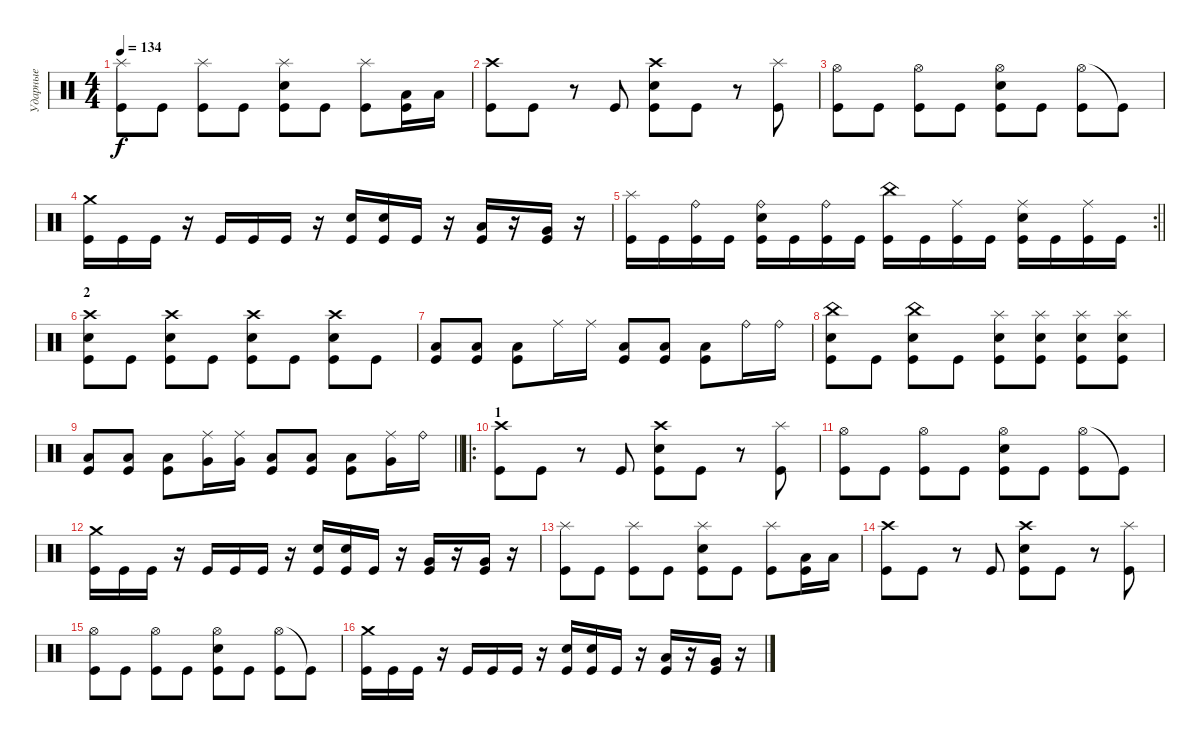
\track ("Ударные" "Ударные") {instrument percussion}
\staff {score}
\articulation defaults
\ts (4 4)
\tempo 134
\clef neutral
\ks c
("Splash (hit)" "Kick (hit)").8{dy f} "Kick (hit)".8 ("Splash (hit)" "Kick (hit)").8 "Kick (hit)".8 ("Splash (hit)" "Electric Snare (hit)" "Kick (hit)").8 "Kick (hit)".8 ("Splash (hit)" "Kick (hit)").8 ("Low Tom (hit)" "Kick (hit)").16 "Low Tom (hit)".16 |
("Crash high (hit)" "Kick (hit)").8 "Kick (hit)".8 r.8 "Kick (hit)".8 ("Crash high (hit)" "Electric Snare (hit)" "Kick (hit)").8 "Kick (hit)".8 r.8 ("Splash (hit)" "Kick (hit)").8 |
("Hi-Hat (open)" "Kick (hit)").8 "Kick (hit)".8 ("Hi-Hat (open)" "Kick (hit)").8 "Kick (hit)".8 ("Hi-Hat (open)" "Electric Snare (hit)" "Kick (hit)").8 "Kick (hit)".8 ("Hi-Hat (open)" "Kick (hit)").8 "Kick (hit)"{t}.8 |
("Crash medium (hit)" "Kick (hit)").16 "Kick (hit)".16 "Kick (hit)".16 r.16 "Kick (hit)".16 "Kick (hit)".16 "Kick (hit)".16 r.16 ("Electric Snare (hit)" "Kick (hit)").16 ("Electric Snare (hit)" "Kick (hit)").16 "Kick (hit)".16 r.16 ("Low Tom (hit)" "Kick (hit)").16 r.16 ("Very Low Tom (hit)" "Kick (hit)").16 r.16 |
\rc 2
\barLineRight lightlight
("Splash (hit)" "Kick (hit)").16 "Kick (hit)".16 ("Ride (bell)" "Kick (hit)").16 "Kick (hit)".16 ("Ride (bell)" "Electric Snare (hit)" "Kick (hit)").16 "Kick (hit)".16 ("Ride (bell)" "Kick (hit)").16 "Kick (hit)".16 ("China (hit)" "Kick (hit)").16 "Kick (hit)".16 ("Ride (middle)" "Kick (hit)").16 "Kick (hit)".16 ("Ride (middle)" "Electric Snare (hit)" "Kick (hit)").16 "Kick (hit)".16 ("Ride (middle)" "Kick (hit)").16 "Kick (hit)".16 |
\section ("" "2")
("Crash high (hit)" "Electric Snare (hit)" "Kick (hit)").8 "Kick (hit)".8 ("Crash high (hit)" "Electric Snare (hit)" "Kick (hit)").8 "Kick (hit)".8 ("Crash high (hit)" "Electric Snare (hit)" "Kick (hit)").8 "Kick (hit)".8 ("Crash high (hit)" "Electric Snare (hit)" "Kick (hit)").8 "Kick (hit)".8 |
("Low Floor Tom (hit)" "Kick (hit)").8 ("Low Floor Tom (hit)" "Kick (hit)").8 ("Low Floor Tom (hit)" "Kick (hit)").8 "Ride (middle)".16 "Ride (middle)".16 ("Low Floor Tom (hit)" "Kick (hit)").8 ("Low Floor Tom (hit)" "Kick (hit)").8 ("Low Floor Tom (hit)" "Kick (hit)").8 "Ride (bell)".16 "Ride (bell)".16 |
("China (hit)" "Electric Snare (hit)" "Kick (hit)").8 "Kick (hit)".8 ("China (hit)" "Electric Snare (hit)" "Kick (hit)").8 "Kick (hit)".8 ("Splash (hit)" "Electric Snare (hit)" "Kick (hit)").8 ("Splash (hit)" "Electric Snare (hit)" "Kick (hit)").8 ("Splash (hit)" "Electric Snare (hit)" "Kick (hit)").8 ("Splash (hit)" "Electric Snare (hit)" "Kick (hit)").8 |
\barLineRight lightlight
("Low Floor Tom (hit)" "Kick (hit)").8 ("Low Floor Tom (hit)" "Kick (hit)").8 ("Low Floor Tom (hit)" "Kick (hit)").8 ("Ride (middle)" "Very Low Tom (hit)").16 ("Ride (middle)" "Very Low Tom (hit)").16 ("Low Floor Tom (hit)" "Kick (hit)").8 ("Low Floor Tom (hit)" "Kick (hit)").8 ("Low Floor Tom (hit)" "Kick (hit)").8 ("Ride (middle)" "Very Low Tom (hit)").16 "Ride (bell)".16 |
\ro
\section ("" "1")
("Crash high (hit)" "Kick (hit)").8 "Kick (hit)".8 r.8 "Kick (hit)".8 ("Crash high (hit)" "Electric Snare (hit)" "Kick (hit)").8 "Kick (hit)".8 r.8 ("Splash (hit)" "Kick (hit)").8 |
("Hi-Hat (open)" "Kick (hit)").8 "Kick (hit)".8 ("Hi-Hat (open)" "Kick (hit)").8 "Kick (hit)".8 ("Hi-Hat (open)" "Electric Snare (hit)" "Kick (hit)").8 "Kick (hit)".8 ("Hi-Hat (open)" "Kick (hit)").8 "Kick (hit)"{t}.8 |
("Crash medium (hit)" "Kick (hit)").16 "Kick (hit)".16 "Kick (hit)".16 r.16 "Kick (hit)".16 "Kick (hit)".16 "Kick (hit)".16 r.16 ("Electric Snare (hit)" "Kick (hit)").16 ("Electric Snare (hit)" "Kick (hit)").16 "Kick (hit)".16 r.16 ("Very Low Tom (hit)" "Kick (hit)").16 r.16 ("Very Low Tom (hit)" "Kick (hit)").16 r.16 |
("Splash (hit)" "Kick (hit)").8 "Kick (hit)".8 ("Splash (hit)" "Kick (hit)").8 "Kick (hit)".8 ("Splash (hit)" "Electric Snare (hit)" "Kick (hit)").8 "Kick (hit)".8 ("Splash (hit)" "Kick (hit)").8 ("Low Tom (hit)" "Kick (hit)").16 "Low Tom (hit)".16 |
("Crash high (hit)" "Kick (hit)").8 "Kick (hit)".8 r.8 "Kick (hit)".8 ("Crash high (hit)" "Electric Snare (hit)" "Kick (hit)").8 "Kick (hit)".8 r.8 ("Splash (hit)" "Kick (hit)").8 |
("Hi-Hat (open)" "Kick (hit)").8 "Kick (hit)".8 ("Hi-Hat (open)" "Kick (hit)").8 "Kick (hit)".8 ("Hi-Hat (open)" "Electric Snare (hit)" "Kick (hit)").8 "Kick (hit)".8 ("Hi-Hat (open)" "Kick (hit)").8 "Kick (hit)"{t}.8 |
("Crash medium (hit)" "Kick (hit)").16 "Kick (hit)".16 "Kick (hit)".16 r.16 "Kick (hit)".16 "Kick (hit)".16 "Kick (hit)".16 r.16 ("Electric Snare (hit)" "Kick (hit)").16 ("Electric Snare (hit)" "Kick (hit)").16 "Kick (hit)".16 r.16 ("Low Tom (hit)" "Kick (hit)").16 r.16 ("Very Low Tom (hit)" "Kick (hit)").16 r.16
